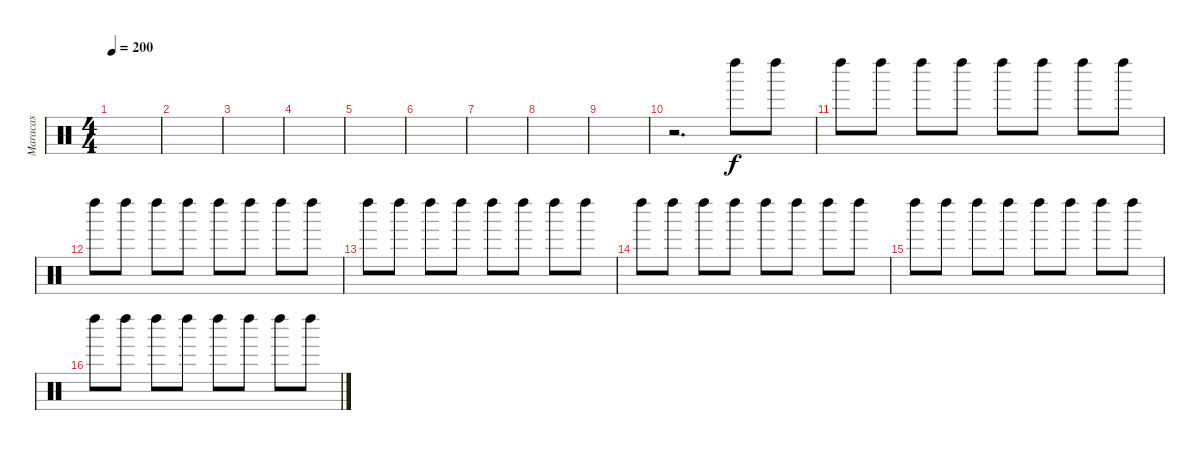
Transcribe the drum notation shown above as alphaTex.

\track ("Maracas" "Maracas") {instrument percussion}
\staff {score}
\articulation defaults
\ts (4 4)
\tempo 200
\clef neutral
\ks c
|
|
|
|
|
|
|
|
|
r.2{d} "Left Maraca (hit)".8 "Left Maraca (hit)".8 |
"Left Maraca (hit)".8 "Left Maraca (hit)".8 "Left Maraca (hit)".8 "Left Maraca (hit)".8 "Left Maraca (hit)".8 "Left Maraca (hit)".8 "Left Maraca (hit)".8 "Left Maraca (hit)".8 |
"Left Maraca (hit)".8 "Left Maraca (hit)".8 "Left Maraca (hit)".8 "Left Maraca (hit)".8 "Left Maraca (hit)".8 "Left Maraca (hit)".8 "Left Maraca (hit)".8 "Left Maraca (hit)".8 |
"Left Maraca (hit)".8 "Left Maraca (hit)".8 "Left Maraca (hit)".8 "Left Maraca (hit)".8 "Left Maraca (hit)".8 "Left Maraca (hit)".8 "Left Maraca (hit)".8 "Left Maraca (hit)".8 |
"Left Maraca (hit)".8 "Left Maraca (hit)".8 "Left Maraca (hit)".8 "Left Maraca (hit)".8 "Left Maraca (hit)".8 "Left Maraca (hit)".8 "Left Maraca (hit)".8 "Left Maraca (hit)".8 |
"Left Maraca (hit)".8 "Left Maraca (hit)".8 "Left Maraca (hit)".8 "Left Maraca (hit)".8 "Left Maraca (hit)".8 "Left Maraca (hit)".8 "Left Maraca (hit)".8 "Left Maraca (hit)".8 |
"Left Maraca (hit)".8 "Left Maraca (hit)".8 "Left Maraca (hit)".8 "Left Maraca (hit)".8 "Left Maraca (hit)".8 "Left Maraca (hit)".8 "Left Maraca (hit)".8 "Left Maraca (hit)".8
